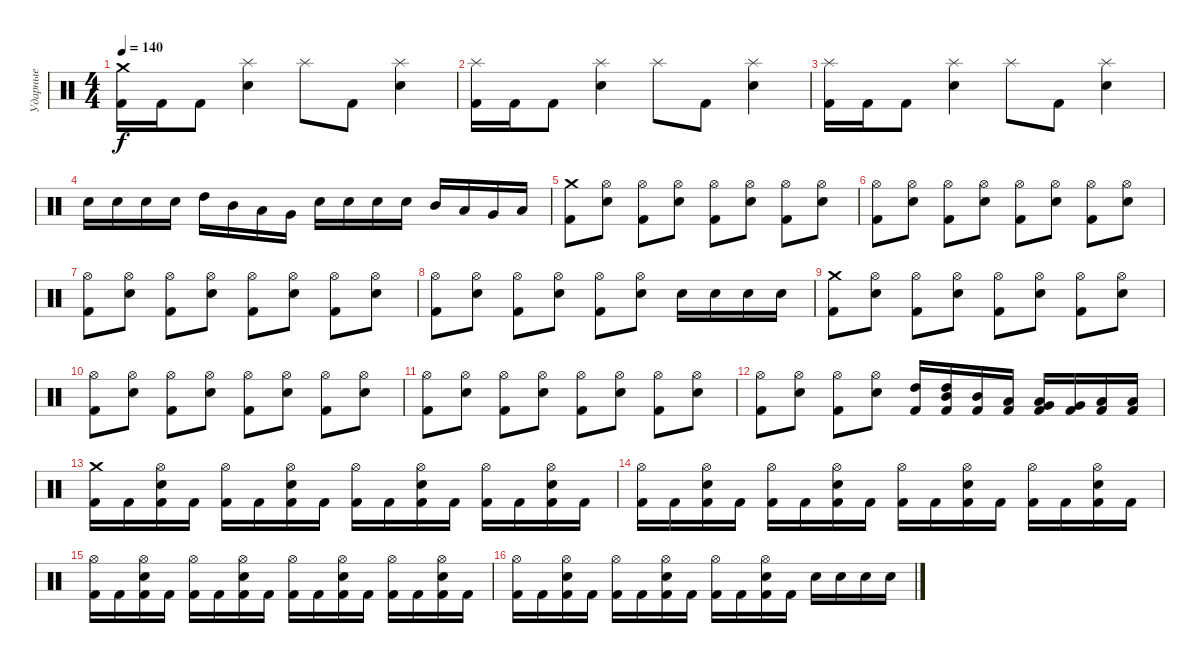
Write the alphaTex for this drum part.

\track ("Ударные" "Ударные") {instrument percussion}
\staff {score}
\articulation defaults
\ts (4 4)
\tempo 140
\clef neutral
\ks c
("Crash medium (hit)" "Kick (hit) 2").16{dy f} "Kick (hit) 2".16 "Kick (hit) 2".8 ("Splash (hit)" "Electric Snare (hit)").4 "Splash (hit)".8 "Kick (hit) 2".8 ("Splash (hit)" "Electric Snare (hit)").4 |
("Splash (hit)" "Kick (hit) 2").16 "Kick (hit) 2".16 "Kick (hit) 2".8 ("Splash (hit)" "Electric Snare (hit)").4 "Splash (hit)".8 "Kick (hit) 2".8 ("Splash (hit)" "Electric Snare (hit)").4 |
("Splash (hit)" "Kick (hit) 2").16 "Kick (hit) 2".16 "Kick (hit) 2".8 ("Splash (hit)" "Electric Snare (hit)").4 "Splash (hit)".8 "Kick (hit) 2".8 ("Splash (hit)" "Electric Snare (hit)").4 |
"Electric Snare (hit)".16 "Electric Snare (hit)".16 "Electric Snare (hit)".16 "Electric Snare (hit)".16 "High Tom (hit)".16 "Mid Tom (hit)".16 "Low Tom (hit)".16 "Very Low Tom (hit)".16 "Electric Snare (hit)".16 "Electric Snare (hit)".16 "Electric Snare (hit)".16 "Electric Snare (hit)".16 "Mid Tom (hit)".16 "Low Tom (hit)".16 "Very Low Tom (hit)".16 "Low Floor Tom (hit)".16 |
("Crash medium (hit)" "Kick (hit) 2").8 ("Hi-Hat (open)" "Electric Snare (hit)").8 ("Hi-Hat (open)" "Kick (hit) 2").8 ("Hi-Hat (open)" "Electric Snare (hit)").8 ("Hi-Hat (open)" "Kick (hit) 2").8 ("Hi-Hat (open)" "Electric Snare (hit)").8 ("Hi-Hat (open)" "Kick (hit) 2").8 ("Hi-Hat (open)" "Electric Snare (hit)").8 |
("Hi-Hat (open)" "Kick (hit) 2").8 ("Hi-Hat (open)" "Electric Snare (hit)").8 ("Hi-Hat (open)" "Kick (hit) 2").8 ("Hi-Hat (open)" "Electric Snare (hit)").8 ("Hi-Hat (open)" "Kick (hit) 2").8 ("Hi-Hat (open)" "Electric Snare (hit)").8 ("Hi-Hat (open)" "Kick (hit) 2").8 ("Hi-Hat (open)" "Electric Snare (hit)").8 |
("Hi-Hat (open)" "Kick (hit) 2").8 ("Hi-Hat (open)" "Electric Snare (hit)").8 ("Hi-Hat (open)" "Kick (hit) 2").8 ("Hi-Hat (open)" "Electric Snare (hit)").8 ("Hi-Hat (open)" "Kick (hit) 2").8 ("Hi-Hat (open)" "Electric Snare (hit)").8 ("Hi-Hat (open)" "Kick (hit) 2").8 ("Hi-Hat (open)" "Electric Snare (hit)").8 |
("Hi-Hat (open)" "Kick (hit) 2").8 ("Hi-Hat (open)" "Electric Snare (hit)").8 ("Hi-Hat (open)" "Kick (hit) 2").8 ("Hi-Hat (open)" "Electric Snare (hit)").8 ("Hi-Hat (open)" "Kick (hit) 2").8 ("Hi-Hat (open)" "Electric Snare (hit)").8 "Electric Snare (hit)".16 "Electric Snare (hit)".16 "Electric Snare (hit)".16 "Electric Snare (hit)".16 |
("Crash medium (hit)" "Kick (hit) 2").8 ("Hi-Hat (open)" "Electric Snare (hit)").8 ("Hi-Hat (open)" "Kick (hit) 2").8 ("Hi-Hat (open)" "Electric Snare (hit)").8 ("Hi-Hat (open)" "Kick (hit) 2").8 ("Hi-Hat (open)" "Electric Snare (hit)").8 ("Hi-Hat (open)" "Kick (hit) 2").8 ("Hi-Hat (open)" "Electric Snare (hit)").8 |
("Hi-Hat (open)" "Kick (hit) 2").8 ("Hi-Hat (open)" "Electric Snare (hit)").8 ("Hi-Hat (open)" "Kick (hit) 2").8 ("Hi-Hat (open)" "Electric Snare (hit)").8 ("Hi-Hat (open)" "Kick (hit) 2").8 ("Hi-Hat (open)" "Electric Snare (hit)").8 ("Hi-Hat (open)" "Kick (hit) 2").8 ("Hi-Hat (open)" "Electric Snare (hit)").8 |
("Hi-Hat (open)" "Kick (hit) 2").8 ("Hi-Hat (open)" "Electric Snare (hit)").8 ("Hi-Hat (open)" "Kick (hit) 2").8 ("Hi-Hat (open)" "Electric Snare (hit)").8 ("Hi-Hat (open)" "Kick (hit) 2").8 ("Hi-Hat (open)" "Electric Snare (hit)").8 ("Hi-Hat (open)" "Kick (hit) 2").8 ("Hi-Hat (open)" "Electric Snare (hit)").8 |
("Hi-Hat (open)" "Kick (hit) 2").8 ("Hi-Hat (open)" "Electric Snare (hit)").8 ("Hi-Hat (open)" "Kick (hit) 2").8 ("Hi-Hat (open)" "Electric Snare (hit)").8 ("High Tom (hit)" "Kick (hit) 2").16 ("Mid Tom (hit)" "High Tom (hit)" "Kick (hit) 2").16 ("Mid Tom (hit)" "Kick (hit) 2").16 ("Low Tom (hit)" "Kick (hit) 2").16 ("Very Low Tom (hit)" "Low Tom (hit)" "Kick (hit) 2").16 ("Very Low Tom (hit)" "Kick (hit) 2").16 ("Low Floor Tom (hit)" "Kick (hit) 2").16 ("Low Floor Tom (hit)" "Kick (hit) 2").16 |
("Crash medium (hit)" "Kick (hit) 2").16 "Kick (hit) 2".16 ("Hi-Hat (open)" "Electric Snare (hit)" "Kick (hit) 2").16 "Kick (hit) 2".16 ("Hi-Hat (open)" "Kick (hit) 2").16 "Kick (hit) 2".16 ("Hi-Hat (open)" "Electric Snare (hit)" "Kick (hit) 2").16 "Kick (hit) 2".16 ("Hi-Hat (open)" "Kick (hit) 2").16 "Kick (hit) 2".16 ("Hi-Hat (open)" "Electric Snare (hit)" "Kick (hit) 2").16 "Kick (hit) 2".16 ("Hi-Hat (open)" "Kick (hit) 2").16 "Kick (hit) 2".16 ("Hi-Hat (open)" "Electric Snare (hit)" "Kick (hit) 2").16 "Kick (hit) 2".16 |
("Hi-Hat (open)" "Kick (hit) 2").16 "Kick (hit) 2".16 ("Hi-Hat (open)" "Electric Snare (hit)" "Kick (hit) 2").16 "Kick (hit) 2".16 ("Hi-Hat (open)" "Kick (hit) 2").16 "Kick (hit) 2".16 ("Hi-Hat (open)" "Electric Snare (hit)" "Kick (hit) 2").16 "Kick (hit) 2".16 ("Hi-Hat (open)" "Kick (hit) 2").16 "Kick (hit) 2".16 ("Hi-Hat (open)" "Electric Snare (hit)" "Kick (hit) 2").16 "Kick (hit) 2".16 ("Hi-Hat (open)" "Kick (hit) 2").16 "Kick (hit) 2".16 ("Hi-Hat (open)" "Electric Snare (hit)" "Kick (hit) 2").16 "Kick (hit) 2".16 |
("Hi-Hat (open)" "Kick (hit) 2").16 "Kick (hit) 2".16 ("Hi-Hat (open)" "Electric Snare (hit)" "Kick (hit) 2").16 "Kick (hit) 2".16 ("Hi-Hat (open)" "Kick (hit) 2").16 "Kick (hit) 2".16 ("Hi-Hat (open)" "Electric Snare (hit)" "Kick (hit) 2").16 "Kick (hit) 2".16 ("Hi-Hat (open)" "Kick (hit) 2").16 "Kick (hit) 2".16 ("Hi-Hat (open)" "Electric Snare (hit)" "Kick (hit) 2").16 "Kick (hit) 2".16 ("Hi-Hat (open)" "Kick (hit) 2").16 "Kick (hit) 2".16 ("Hi-Hat (open)" "Electric Snare (hit)" "Kick (hit) 2").16 "Kick (hit) 2".16 |
("Hi-Hat (open)" "Kick (hit) 2").16 "Kick (hit) 2".16 ("Hi-Hat (open)" "Electric Snare (hit)" "Kick (hit) 2").16 "Kick (hit) 2".16 ("Hi-Hat (open)" "Kick (hit) 2").16 "Kick (hit) 2".16 ("Hi-Hat (open)" "Electric Snare (hit)" "Kick (hit) 2").16 "Kick (hit) 2".16 ("Hi-Hat (open)" "Kick (hit) 2").16 "Kick (hit) 2".16 ("Hi-Hat (open)" "Electric Snare (hit)" "Kick (hit) 2").16 "Kick (hit) 2".16 "Electric Snare (hit)".16 "Electric Snare (hit)".16 "Electric Snare (hit)".16 "Electric Snare (hit)".16
